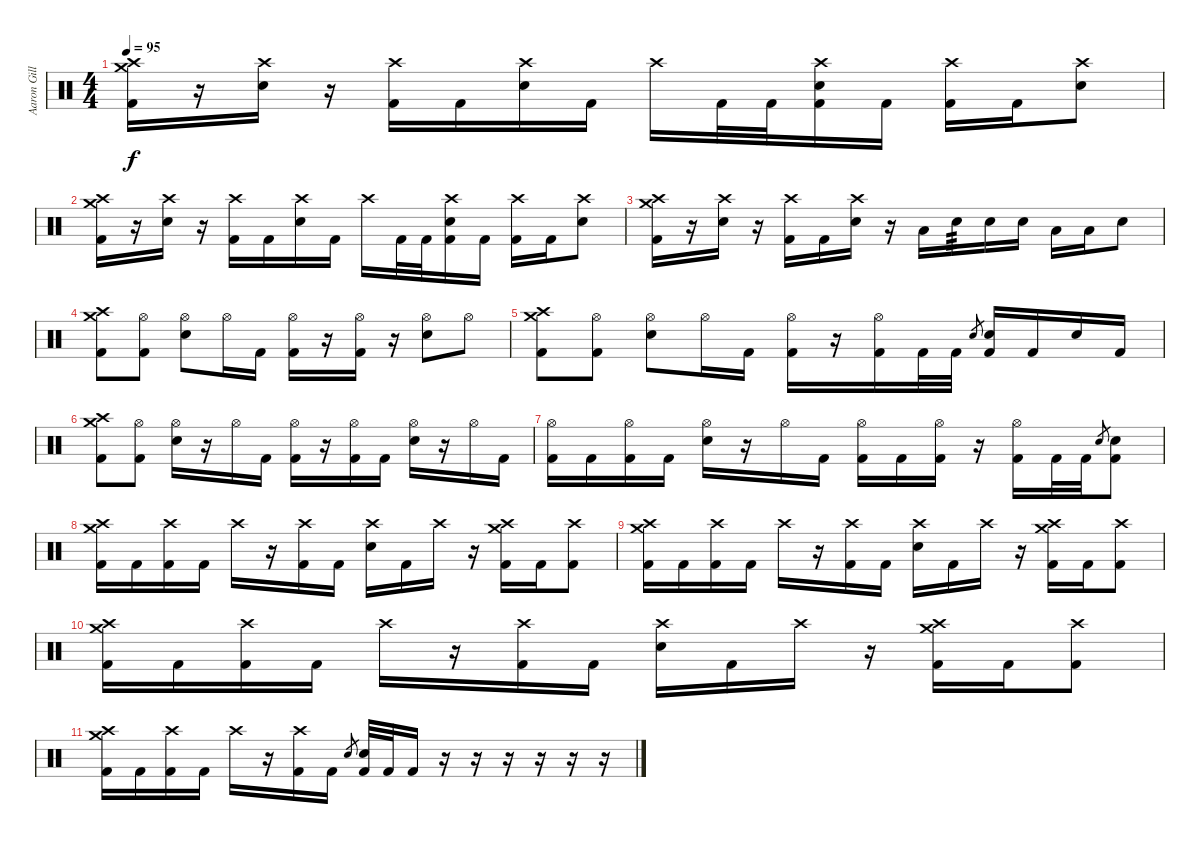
\track ("Aaron Gillespie" "Aaron Gill") {instrument percussion}
\staff {score}
\articulation defaults
\ts (4 4)
\tempo 95
\clef neutral
\ks c
("Crash medium (hit)" "Crash high (hit)" "Kick (hit) 2").16{dy f} r.16 ("Electric Snare (hit)" "Crash high (hit)").16 r.16 ("Crash high (hit)" "Kick (hit) 2").16 "Kick (hit) 2".16 ("Electric Snare (hit)" "Crash high (hit)").16 "Kick (hit) 2".16 "Crash high (hit)".16 "Kick (hit) 2".32 "Kick (hit) 2".32 ("Crash high (hit)" "Electric Snare (hit)" "Kick (hit) 2").16 "Kick (hit) 2".16 ("Crash high (hit)" "Kick (hit) 2").16 "Kick (hit) 2".16 ("Electric Snare (hit)" "Crash high (hit)").8 |
("Crash medium (hit)" "Crash high (hit)" "Kick (hit) 2").16 r.16 ("Electric Snare (hit)" "Crash high (hit)").16 r.16 ("Crash high (hit)" "Kick (hit) 2").16 "Kick (hit) 2".16 ("Electric Snare (hit)" "Crash high (hit)").16 "Kick (hit) 2".16 "Crash high (hit)".16 "Kick (hit) 2".32 "Kick (hit) 2".32 ("Crash high (hit)" "Electric Snare (hit)" "Kick (hit) 2").16 "Kick (hit) 2".16 ("Crash high (hit)" "Kick (hit) 2").16 "Kick (hit) 2".16 ("Electric Snare (hit)" "Crash high (hit)").8 |
("Crash medium (hit)" "Crash high (hit)" "Kick (hit) 2").16 r.16 ("Electric Snare (hit)" "Crash high (hit)").16 r.16 ("Crash high (hit)" "Kick (hit) 2").16 "Kick (hit) 2".16 ("Electric Snare (hit)" "Crash high (hit)").16 r.16 "Low Floor Tom (hit)".16 "Electric Snare (hit)".16{tp 3} "Electric Snare (hit)".16 "Electric Snare (hit)".16 "Low Tom (hit)".16 "Low Floor Tom (hit)".16 "Electric Snare (hit)".8 |
("Crash medium (hit)" "Crash high (hit)" "Kick (hit) 2").8 ("Hi-Hat (open)" "Kick (hit) 2").8 ("Electric Snare (hit)" "Hi-Hat (open)").8 "Hi-Hat (open)".16 "Kick (hit) 2".16 ("Hi-Hat (open)" "Kick (hit) 2").16 r.16 ("Hi-Hat (open)" "Kick (hit) 2").16 r.16 ("Electric Snare (hit)" "Hi-Hat (open)").8 "Hi-Hat (open)".8 |
("Crash medium (hit)" "Crash high (hit)" "Kick (hit) 2").8 ("Hi-Hat (open)" "Kick (hit) 2").8 ("Electric Snare (hit)" "Hi-Hat (open)").8 "Hi-Hat (open)".16 "Kick (hit) 2".16 ("Hi-Hat (open)" "Kick (hit) 2").16 r.16 ("Hi-Hat (open)" "Kick (hit) 2").16 "Kick (hit) 2".32 "Kick (hit) 2".32 "Electric Snare (hit)".8{gr} ("Electric Snare (hit)" "Kick (hit) 2").16 "Kick (hit) 2".16 "Electric Snare (hit)".16 "Kick (hit) 2".16 |
("Crash medium (hit)" "Crash high (hit)" "Kick (hit) 2").8 ("Hi-Hat (open)" "Kick (hit) 2").8 ("Electric Snare (hit)" "Hi-Hat (open)").16 r.16 "Hi-Hat (open)".16 "Kick (hit) 2".16 ("Hi-Hat (open)" "Kick (hit) 2").16 r.16 ("Hi-Hat (open)" "Kick (hit) 2").16 "Kick (hit) 2".16 ("Electric Snare (hit)" "Hi-Hat (open)").16 r.16 "Hi-Hat (open)".16 "Kick (hit) 2".16 |
("Hi-Hat (open)" "Kick (hit) 2").16 "Kick (hit) 2".16 ("Hi-Hat (open)" "Kick (hit) 2").16 "Kick (hit) 2".16 ("Electric Snare (hit)" "Hi-Hat (open)").16 r.16 "Hi-Hat (open)".16 "Kick (hit) 2".16 ("Hi-Hat (open)" "Kick (hit) 2").16 "Kick (hit) 2".16 ("Hi-Hat (open)" "Kick (hit) 2").16 r.16 ("Hi-Hat (open)" "Kick (hit) 2").16 "Kick (hit) 2".32 "Kick (hit) 2".32 "Electric Snare (hit)".8{gr} ("Electric Snare (hit)" "Kick (hit) 2").8 |
("Crash medium (hit)" "Crash high (hit)" "Kick (hit) 2").16 "Kick (hit) 2".16 ("Crash high (hit)" "Kick (hit) 2").16 "Kick (hit) 2".16 "Crash high (hit)".16 r.16 ("Crash high (hit)" "Kick (hit) 2").16 "Kick (hit) 2".16 ("Crash high (hit)" "Electric Snare (hit)").16 "Kick (hit) 2".16 "Crash high (hit)".16 r.16 ("Crash medium (hit)" "Crash high (hit)" "Kick (hit) 2").16 "Kick (hit) 2".16 ("Crash high (hit)" "Kick (hit) 2").8 |
("Crash medium (hit)" "Crash high (hit)" "Kick (hit) 2").16 "Kick (hit) 2".16 ("Crash high (hit)" "Kick (hit) 2").16 "Kick (hit) 2".16 "Crash high (hit)".16 r.16 ("Crash high (hit)" "Kick (hit) 2").16 "Kick (hit) 2".16 ("Crash high (hit)" "Electric Snare (hit)").16 "Kick (hit) 2".16 "Crash high (hit)".16 r.16 ("Crash medium (hit)" "Crash high (hit)" "Kick (hit) 2").16 "Kick (hit) 2".16 ("Crash high (hit)" "Kick (hit) 2").8 |
("Crash medium (hit)" "Crash high (hit)" "Kick (hit) 2").16 "Kick (hit) 2".16 ("Crash high (hit)" "Kick (hit) 2").16 "Kick (hit) 2".16 "Crash high (hit)".16 r.16 ("Crash high (hit)" "Kick (hit) 2").16 "Kick (hit) 2".16 ("Crash high (hit)" "Electric Snare (hit)").16 "Kick (hit) 2".16 "Crash high (hit)".16 r.16 ("Crash medium (hit)" "Crash high (hit)" "Kick (hit) 2").16 "Kick (hit) 2".16 ("Crash high (hit)" "Kick (hit) 2").8 |
("Crash medium (hit)" "Crash high (hit)" "Kick (hit) 2").16 "Kick (hit) 2".16 ("Crash high (hit)" "Kick (hit) 2").16 "Kick (hit) 2".16 "Crash high (hit)".16 r.16 ("Crash high (hit)" "Kick (hit) 2").16 "Kick (hit) 2".16 "Electric Snare (hit)".8{gr} ("Electric Snare (hit)" "Kick (hit) 2").32 "Kick (hit) 2".32 "Kick (hit) 2".16 r.16 r.16 r.16 r.16 r.16 r.16
